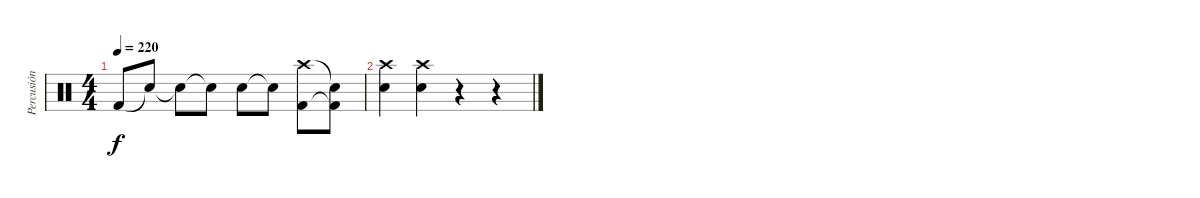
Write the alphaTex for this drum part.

\track ("Percusión" "Percusión") {instrument percussion}
\staff {score}
\articulation defaults
\ts (4 4)
\tempo 220
\clef neutral
\ks c "Kick (hit) 2".8{dy f} "Snare (hit)"{t}.8 "Snare (hit)"{t}.8 "Snare (hit)"{t}.8 "Snare (hit) 2".8 "Snare (hit)"{t}.8
("Kick (hit) 2" "Crash high (hit)").8 ("Kick (hit) 2"{t} "Snare (hit)"{t}).8 |
("Snare (hit) 2" "Crash high (hit)").4 ("Snare (hit) 2" "Crash high (hit)").4 r.4 r.4
